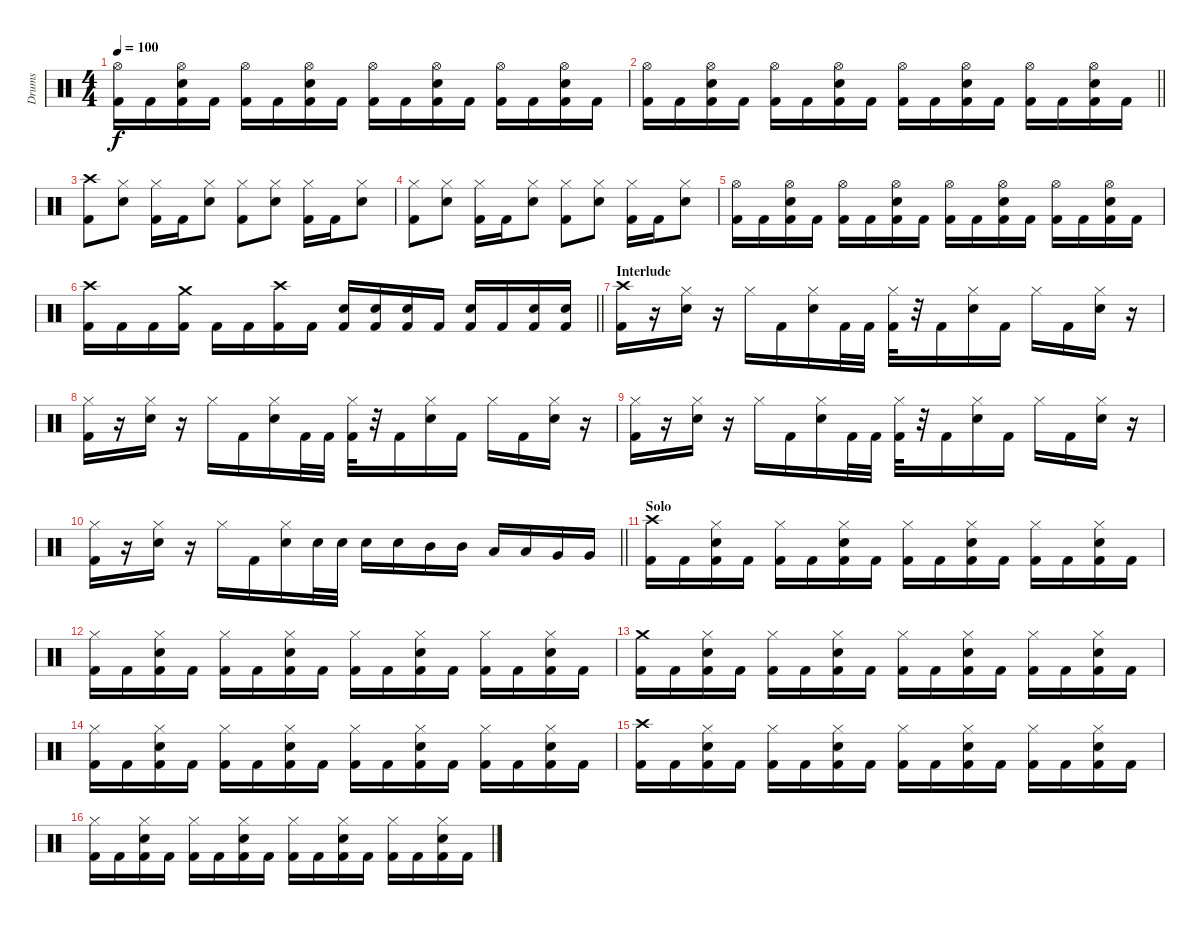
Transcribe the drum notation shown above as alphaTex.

\track ("Drums" "Drums") {instrument percussion}
\staff {score}
\articulation defaults
\ts (4 4)
\tempo 100
\clef neutral
\ks c
("Hi-Hat (open)" "Kick (hit) 2").16{dy f} "Kick (hit) 2".16 ("Hi-Hat (open)" "Snare (hit) 2" "Kick (hit) 2").16 "Kick (hit) 2".16 ("Hi-Hat (open)" "Kick (hit) 2").16 "Kick (hit) 2".16 ("Hi-Hat (open)" "Snare (hit) 2" "Kick (hit) 2").16 "Kick (hit) 2".16 ("Hi-Hat (open)" "Kick (hit) 2").16 "Kick (hit) 2".16 ("Hi-Hat (open)" "Snare (hit) 2" "Kick (hit) 2").16 "Kick (hit) 2".16 ("Hi-Hat (open)" "Kick (hit) 2").16 "Kick (hit) 2".16 ("Hi-Hat (open)" "Snare (hit) 2" "Kick (hit) 2").16 "Kick (hit) 2".16 |
\barLineRight lightlight
("Hi-Hat (open)" "Kick (hit) 2").16 "Kick (hit) 2".16 ("Hi-Hat (open)" "Snare (hit) 2" "Kick (hit) 2").16 "Kick (hit) 2".16 ("Hi-Hat (open)" "Kick (hit) 2").16 "Kick (hit) 2".16 ("Hi-Hat (open)" "Snare (hit) 2" "Kick (hit) 2").16 "Kick (hit) 2".16 ("Hi-Hat (open)" "Kick (hit) 2").16 "Kick (hit) 2".16 ("Hi-Hat (open)" "Snare (hit) 2" "Kick (hit) 2").16 "Kick (hit) 2".16 ("Hi-Hat (open)" "Kick (hit) 2").16 "Kick (hit) 2".16 ("Hi-Hat (open)" "Snare (hit) 2" "Kick (hit) 2").16 "Kick (hit) 2".16 |
("Crash high (hit)" "Kick (hit) 2").8 ("Hi-Hat (closed)" "Snare (hit) 2").8 ("Hi-Hat (closed)" "Kick (hit) 2").16 "Kick (hit) 2".16 ("Hi-Hat (closed)" "Snare (hit) 2").8 ("Hi-Hat (closed)" "Kick (hit) 2").8 ("Hi-Hat (closed)" "Snare (hit) 2").8 ("Hi-Hat (closed)" "Kick (hit) 2").16 "Kick (hit) 2".16 ("Hi-Hat (closed)" "Snare (hit) 2").8 |
("Hi-Hat (closed)" "Kick (hit) 2").8 ("Hi-Hat (closed)" "Snare (hit) 2").8 ("Hi-Hat (closed)" "Kick (hit) 2").16 "Kick (hit) 2".16 ("Hi-Hat (closed)" "Snare (hit) 2").8 ("Hi-Hat (closed)" "Kick (hit) 2").8 ("Hi-Hat (closed)" "Snare (hit) 2").8 ("Hi-Hat (closed)" "Kick (hit) 2").16 "Kick (hit) 2".16 ("Hi-Hat (closed)" "Snare (hit) 2").8 |
("Hi-Hat (open)" "Kick (hit) 2").16 "Kick (hit) 2".16 ("Hi-Hat (open)" "Snare (hit) 2" "Kick (hit) 2").16 "Kick (hit) 2".16 ("Hi-Hat (open)" "Kick (hit) 2").16 "Kick (hit) 2".16 ("Hi-Hat (open)" "Snare (hit) 2" "Kick (hit) 2").16 "Kick (hit) 2".16 ("Hi-Hat (open)" "Kick (hit) 2").16 "Kick (hit) 2".16 ("Hi-Hat (open)" "Snare (hit) 2" "Kick (hit) 2").16 "Kick (hit) 2".16 ("Hi-Hat (open)" "Kick (hit) 2").16 "Kick (hit) 2".16 ("Hi-Hat (open)" "Snare (hit) 2" "Kick (hit) 2").16 "Kick (hit) 2".16 |
\barLineRight lightlight
("Crash high (hit)" "Kick (hit) 2").16 "Kick (hit) 2".16 "Kick (hit) 2".16 ("Crash medium (hit)" "Kick (hit) 2").16 "Kick (hit) 2".16 "Kick (hit) 2".16 ("Crash high (hit)" "Kick (hit) 2").16 "Kick (hit) 2".16 ("Snare (hit) 2" "Kick (hit) 2").16 ("Snare (hit) 2" "Kick (hit) 2").16 ("Snare (hit) 2" "Kick (hit) 2").16 "Kick (hit) 2".16 ("Snare (hit) 2" "Kick (hit) 2").16 "Kick (hit) 2".16 ("Snare (hit) 2" "Kick (hit) 2").16 ("Snare (hit) 2" "Kick (hit) 2").16 |
\section ("" "Interlude")
("Crash high (hit)" "Kick (hit) 2").16 r.16 ("Hi-Hat (closed)" "Snare (hit) 2").16 r.16 "Hi-Hat (closed)".16 "Kick (hit) 2".16 ("Hi-Hat (closed)" "Snare (hit) 2").16 "Kick (hit) 2".32 "Kick (hit) 2".32 ("Hi-Hat (closed)" "Kick (hit) 2").32 r.32 "Kick (hit) 2".16 ("Hi-Hat (closed)" "Snare (hit) 2").16 "Kick (hit) 2".16 "Hi-Hat (closed)".16 "Kick (hit) 2".16 ("Hi-Hat (closed)" "Snare (hit) 2").16 r.16 |
("Hi-Hat (closed)" "Kick (hit) 2").16 r.16 ("Hi-Hat (closed)" "Snare (hit) 2").16 r.16 "Hi-Hat (closed)".16 "Kick (hit) 2".16 ("Hi-Hat (closed)" "Snare (hit) 2").16 "Kick (hit) 2".32 "Kick (hit) 2".32 ("Hi-Hat (closed)" "Kick (hit) 2").32 r.32 "Kick (hit) 2".16 ("Hi-Hat (closed)" "Snare (hit) 2").16 "Kick (hit) 2".16 "Hi-Hat (closed)".16 "Kick (hit) 2".16 ("Hi-Hat (closed)" "Snare (hit) 2").16 r.16 |
("Hi-Hat (closed)" "Kick (hit) 2").16 r.16 ("Hi-Hat (closed)" "Snare (hit) 2").16 r.16 "Hi-Hat (closed)".16 "Kick (hit) 2".16 ("Hi-Hat (closed)" "Snare (hit) 2").16 "Kick (hit) 2".32 "Kick (hit) 2".32 ("Hi-Hat (closed)" "Kick (hit) 2").32 r.32 "Kick (hit) 2".16 ("Hi-Hat (closed)" "Snare (hit) 2").16 "Kick (hit) 2".16 "Hi-Hat (closed)".16 "Kick (hit) 2".16 ("Hi-Hat (closed)" "Snare (hit) 2").16 r.16 |
\barLineRight lightlight
("Hi-Hat (closed)" "Kick (hit) 2").16 r.16 ("Hi-Hat (closed)" "Snare (hit) 2").16 r.16 "Hi-Hat (closed)".16 "Kick (hit) 2".16 ("Hi-Hat (closed)" "Snare (hit) 2").16 "Snare (hit) 2".32 "Snare (hit) 2".32 "Snare (hit) 2".16 "Snare (hit) 2".16 "Mid Tom (hit)".16 "Mid Tom (hit)".16 "Low Tom (hit)".16 "Low Tom (hit)".16 "Very Low Tom (hit)".16 "Very Low Tom (hit)".16 |
\section ("" "Solo")
("Crash high (hit)" "Kick (hit) 2").16 "Kick (hit) 2".16 ("Hi-Hat (closed)" "Snare (hit) 2" "Kick (hit) 2").16 "Kick (hit) 2".16 ("Hi-Hat (closed)" "Kick (hit) 2").16 "Kick (hit) 2".16 ("Hi-Hat (closed)" "Snare (hit) 2" "Kick (hit) 2").16 "Kick (hit) 2".16 ("Hi-Hat (closed)" "Kick (hit) 2").16 "Kick (hit) 2".16 ("Hi-Hat (closed)" "Snare (hit) 2" "Kick (hit) 2").16 "Kick (hit) 2".16 ("Hi-Hat (closed)" "Kick (hit) 2").16 "Kick (hit) 2".16 ("Hi-Hat (closed)" "Snare (hit) 2" "Kick (hit) 2").16 "Kick (hit) 2".16 |
("Hi-Hat (closed)" "Kick (hit) 2").16 "Kick (hit) 2".16 ("Hi-Hat (closed)" "Snare (hit) 2" "Kick (hit) 2").16 "Kick (hit) 2".16 ("Hi-Hat (closed)" "Kick (hit) 2").16 "Kick (hit) 2".16 ("Hi-Hat (closed)" "Snare (hit) 2" "Kick (hit) 2").16 "Kick (hit) 2".16 ("Hi-Hat (closed)" "Kick (hit) 2").16 "Kick (hit) 2".16 ("Hi-Hat (closed)" "Snare (hit) 2" "Kick (hit) 2").16 "Kick (hit) 2".16 ("Hi-Hat (closed)" "Kick (hit) 2").16 "Kick (hit) 2".16 ("Hi-Hat (closed)" "Snare (hit) 2" "Kick (hit) 2").16 "Kick (hit) 2".16 |
("Crash medium (hit)" "Kick (hit) 2").16 "Kick (hit) 2".16 ("Hi-Hat (closed)" "Snare (hit) 2" "Kick (hit) 2").16 "Kick (hit) 2".16 ("Hi-Hat (closed)" "Kick (hit) 2").16 "Kick (hit) 2".16 ("Hi-Hat (closed)" "Snare (hit) 2" "Kick (hit) 2").16 "Kick (hit) 2".16 ("Hi-Hat (closed)" "Kick (hit) 2").16 "Kick (hit) 2".16 ("Hi-Hat (closed)" "Snare (hit) 2" "Kick (hit) 2").16 "Kick (hit) 2".16 ("Hi-Hat (closed)" "Kick (hit) 2").16 "Kick (hit) 2".16 ("Hi-Hat (closed)" "Snare (hit) 2" "Kick (hit) 2").16 "Kick (hit) 2".16 |
("Hi-Hat (closed)" "Kick (hit) 2").16 "Kick (hit) 2".16 ("Hi-Hat (closed)" "Snare (hit) 2" "Kick (hit) 2").16 "Kick (hit) 2".16 ("Hi-Hat (closed)" "Kick (hit) 2").16 "Kick (hit) 2".16 ("Hi-Hat (closed)" "Snare (hit) 2" "Kick (hit) 2").16 "Kick (hit) 2".16 ("Hi-Hat (closed)" "Kick (hit) 2").16 "Kick (hit) 2".16 ("Hi-Hat (closed)" "Snare (hit) 2" "Kick (hit) 2").16 "Kick (hit) 2".16 ("Hi-Hat (closed)" "Kick (hit) 2").16 "Kick (hit) 2".16 ("Hi-Hat (closed)" "Snare (hit) 2" "Kick (hit) 2").16 "Kick (hit) 2".16 |
("Crash high (hit)" "Kick (hit) 2").16 "Kick (hit) 2".16 ("Hi-Hat (closed)" "Snare (hit) 2" "Kick (hit) 2").16 "Kick (hit) 2".16 ("Hi-Hat (closed)" "Kick (hit) 2").16 "Kick (hit) 2".16 ("Hi-Hat (closed)" "Snare (hit) 2" "Kick (hit) 2").16 "Kick (hit) 2".16 ("Hi-Hat (closed)" "Kick (hit) 2").16 "Kick (hit) 2".16 ("Hi-Hat (closed)" "Snare (hit) 2" "Kick (hit) 2").16 "Kick (hit) 2".16 ("Hi-Hat (closed)" "Kick (hit) 2").16 "Kick (hit) 2".16 ("Hi-Hat (closed)" "Snare (hit) 2" "Kick (hit) 2").16 "Kick (hit) 2".16 |
("Hi-Hat (closed)" "Kick (hit) 2").16 "Kick (hit) 2".16 ("Hi-Hat (closed)" "Snare (hit) 2" "Kick (hit) 2").16 "Kick (hit) 2".16 ("Hi-Hat (closed)" "Kick (hit) 2").16 "Kick (hit) 2".16 ("Hi-Hat (closed)" "Snare (hit) 2" "Kick (hit) 2").16 "Kick (hit) 2".16 ("Hi-Hat (closed)" "Kick (hit) 2").16 "Kick (hit) 2".16 ("Hi-Hat (closed)" "Snare (hit) 2" "Kick (hit) 2").16 "Kick (hit) 2".16 ("Hi-Hat (closed)" "Kick (hit) 2").16 "Kick (hit) 2".16 ("Hi-Hat (closed)" "Snare (hit) 2" "Kick (hit) 2").16 "Kick (hit) 2".16
